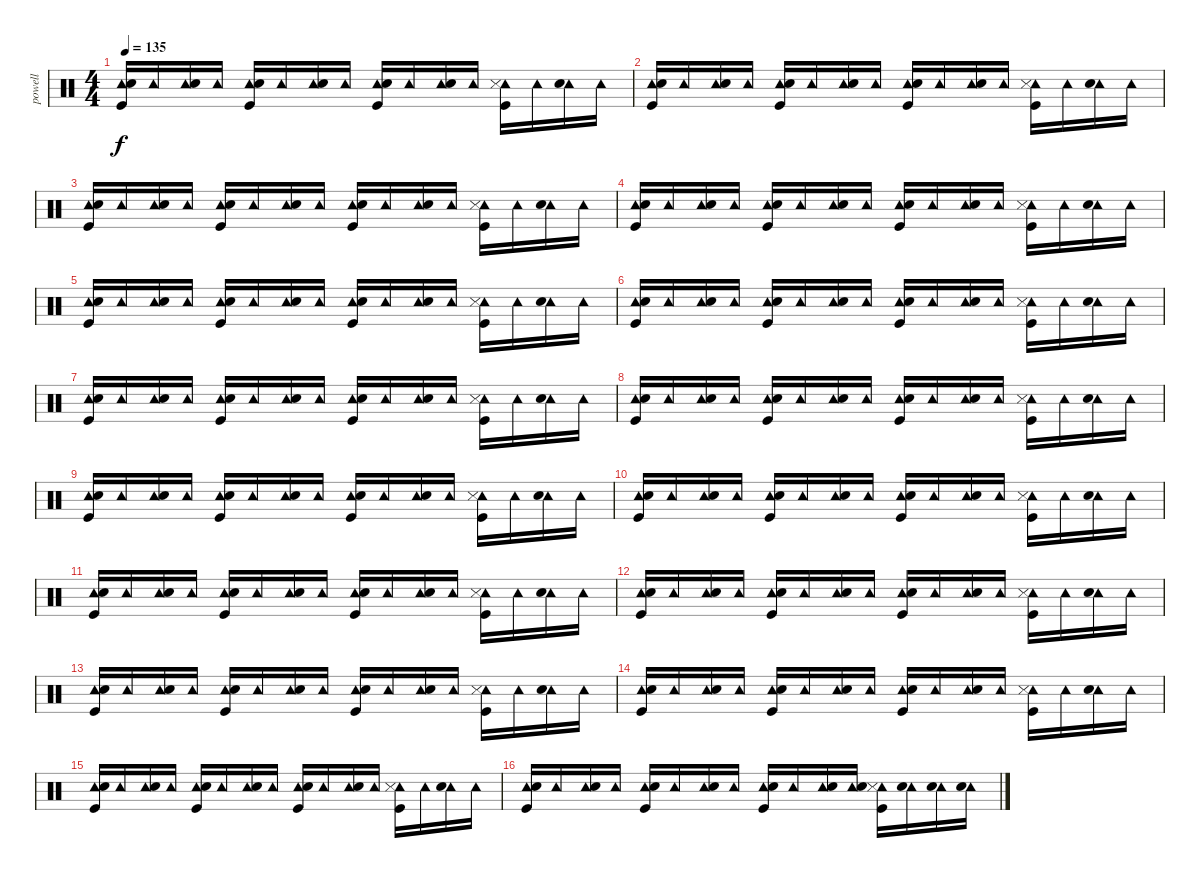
\track ("powell" "powell") {instrument percussion}
\staff {score}
\articulation defaults
\ts (4 4)
\tempo 135
\clef neutral
\ks c
("Tambourine (hit)" "Electric Snare (hit)" "Kick (hit)").16{dy f} "Tambourine (hit)".16 ("Tambourine (hit)" "Electric Snare (hit)").16 "Tambourine (hit)".16 ("Tambourine (hit)" "Electric Snare (hit)" "Kick (hit)").16 "Tambourine (hit)".16 ("Tambourine (hit)" "Electric Snare (hit)").16 "Tambourine (hit)".16 ("Tambourine (hit)" "Electric Snare (hit)" "Kick (hit)").16 "Tambourine (hit)".16 ("Tambourine (hit)" "Electric Snare (hit)").16 "Tambourine (hit)".16 ("Tambourine (hit)" "Snare (side stick) 3" "Kick (hit)").16 "Tambourine (hit)".16 ("Tambourine (hit)" "Electric Snare (hit)").16 "Tambourine (hit)".16 |
("Tambourine (hit)" "Electric Snare (hit)" "Kick (hit)").16 "Tambourine (hit)".16 ("Tambourine (hit)" "Electric Snare (hit)").16 "Tambourine (hit)".16 ("Tambourine (hit)" "Electric Snare (hit)" "Kick (hit)").16 "Tambourine (hit)".16 ("Tambourine (hit)" "Electric Snare (hit)").16 "Tambourine (hit)".16 ("Tambourine (hit)" "Electric Snare (hit)" "Kick (hit)").16 "Tambourine (hit)".16 ("Tambourine (hit)" "Electric Snare (hit)").16 "Tambourine (hit)".16 ("Tambourine (hit)" "Snare (side stick) 3" "Kick (hit)").16 "Tambourine (hit)".16 ("Tambourine (hit)" "Electric Snare (hit)").16 "Tambourine (hit)".16 |
("Tambourine (hit)" "Electric Snare (hit)" "Kick (hit)").16 "Tambourine (hit)".16 ("Tambourine (hit)" "Electric Snare (hit)").16 "Tambourine (hit)".16 ("Tambourine (hit)" "Electric Snare (hit)" "Kick (hit)").16 "Tambourine (hit)".16 ("Tambourine (hit)" "Electric Snare (hit)").16 "Tambourine (hit)".16 ("Tambourine (hit)" "Electric Snare (hit)" "Kick (hit)").16 "Tambourine (hit)".16 ("Tambourine (hit)" "Electric Snare (hit)").16 "Tambourine (hit)".16 ("Tambourine (hit)" "Snare (side stick) 3" "Kick (hit)").16 "Tambourine (hit)".16 ("Tambourine (hit)" "Electric Snare (hit)").16 "Tambourine (hit)".16 |
("Tambourine (hit)" "Electric Snare (hit)" "Kick (hit)").16 "Tambourine (hit)".16 ("Tambourine (hit)" "Electric Snare (hit)").16 "Tambourine (hit)".16 ("Tambourine (hit)" "Electric Snare (hit)" "Kick (hit)").16 "Tambourine (hit)".16 ("Tambourine (hit)" "Electric Snare (hit)").16 "Tambourine (hit)".16 ("Tambourine (hit)" "Electric Snare (hit)" "Kick (hit)").16 "Tambourine (hit)".16 ("Tambourine (hit)" "Electric Snare (hit)").16 "Tambourine (hit)".16 ("Tambourine (hit)" "Snare (side stick) 3" "Kick (hit)").16 "Tambourine (hit)".16 ("Tambourine (hit)" "Electric Snare (hit)").16 "Tambourine (hit)".16 |
("Tambourine (hit)" "Electric Snare (hit)" "Kick (hit)").16 "Tambourine (hit)".16 ("Tambourine (hit)" "Electric Snare (hit)").16 "Tambourine (hit)".16 ("Tambourine (hit)" "Electric Snare (hit)" "Kick (hit)").16 "Tambourine (hit)".16 ("Tambourine (hit)" "Electric Snare (hit)").16 "Tambourine (hit)".16 ("Tambourine (hit)" "Electric Snare (hit)" "Kick (hit)").16 "Tambourine (hit)".16 ("Tambourine (hit)" "Electric Snare (hit)").16 "Tambourine (hit)".16 ("Tambourine (hit)" "Snare (side stick) 3" "Kick (hit)").16 "Tambourine (hit)".16 ("Tambourine (hit)" "Electric Snare (hit)").16 "Tambourine (hit)".16 |
("Tambourine (hit)" "Electric Snare (hit)" "Kick (hit)").16 "Tambourine (hit)".16 ("Tambourine (hit)" "Electric Snare (hit)").16 "Tambourine (hit)".16 ("Tambourine (hit)" "Electric Snare (hit)" "Kick (hit)").16 "Tambourine (hit)".16 ("Tambourine (hit)" "Electric Snare (hit)").16 "Tambourine (hit)".16 ("Tambourine (hit)" "Electric Snare (hit)" "Kick (hit)").16 "Tambourine (hit)".16 ("Tambourine (hit)" "Electric Snare (hit)").16 "Tambourine (hit)".16 ("Tambourine (hit)" "Snare (side stick) 3" "Kick (hit)").16 "Tambourine (hit)".16 ("Tambourine (hit)" "Electric Snare (hit)").16 "Tambourine (hit)".16 |
("Tambourine (hit)" "Electric Snare (hit)" "Kick (hit)").16 "Tambourine (hit)".16 ("Tambourine (hit)" "Electric Snare (hit)").16 "Tambourine (hit)".16 ("Tambourine (hit)" "Electric Snare (hit)" "Kick (hit)").16 "Tambourine (hit)".16 ("Tambourine (hit)" "Electric Snare (hit)").16 "Tambourine (hit)".16 ("Tambourine (hit)" "Electric Snare (hit)" "Kick (hit)").16 "Tambourine (hit)".16 ("Tambourine (hit)" "Electric Snare (hit)").16 "Tambourine (hit)".16 ("Tambourine (hit)" "Snare (side stick) 3" "Kick (hit)").16 "Tambourine (hit)".16 ("Tambourine (hit)" "Electric Snare (hit)").16 "Tambourine (hit)".16 |
("Tambourine (hit)" "Electric Snare (hit)" "Kick (hit)").16 "Tambourine (hit)".16 ("Tambourine (hit)" "Electric Snare (hit)").16 "Tambourine (hit)".16 ("Tambourine (hit)" "Electric Snare (hit)" "Kick (hit)").16 "Tambourine (hit)".16 ("Tambourine (hit)" "Electric Snare (hit)").16 "Tambourine (hit)".16 ("Tambourine (hit)" "Electric Snare (hit)" "Kick (hit)").16 "Tambourine (hit)".16 ("Tambourine (hit)" "Electric Snare (hit)").16 "Tambourine (hit)".16 ("Tambourine (hit)" "Snare (side stick) 3" "Kick (hit)").16 "Tambourine (hit)".16 ("Tambourine (hit)" "Electric Snare (hit)").16 "Tambourine (hit)".16 |
("Tambourine (hit)" "Electric Snare (hit)" "Kick (hit)").16 "Tambourine (hit)".16 ("Tambourine (hit)" "Electric Snare (hit)").16 "Tambourine (hit)".16 ("Tambourine (hit)" "Electric Snare (hit)" "Kick (hit)").16 "Tambourine (hit)".16 ("Tambourine (hit)" "Electric Snare (hit)").16 "Tambourine (hit)".16 ("Tambourine (hit)" "Electric Snare (hit)" "Kick (hit)").16 "Tambourine (hit)".16 ("Tambourine (hit)" "Electric Snare (hit)").16 "Tambourine (hit)".16 ("Tambourine (hit)" "Snare (side stick) 3" "Kick (hit)").16 "Tambourine (hit)".16 ("Tambourine (hit)" "Electric Snare (hit)").16 "Tambourine (hit)".16 |
("Tambourine (hit)" "Electric Snare (hit)" "Kick (hit)").16 "Tambourine (hit)".16 ("Tambourine (hit)" "Electric Snare (hit)").16 "Tambourine (hit)".16 ("Tambourine (hit)" "Electric Snare (hit)" "Kick (hit)").16 "Tambourine (hit)".16 ("Tambourine (hit)" "Electric Snare (hit)").16 "Tambourine (hit)".16 ("Tambourine (hit)" "Electric Snare (hit)" "Kick (hit)").16 "Tambourine (hit)".16 ("Tambourine (hit)" "Electric Snare (hit)").16 "Tambourine (hit)".16 ("Tambourine (hit)" "Snare (side stick) 3" "Kick (hit)").16 "Tambourine (hit)".16 ("Tambourine (hit)" "Electric Snare (hit)").16 "Tambourine (hit)".16 |
("Tambourine (hit)" "Electric Snare (hit)" "Kick (hit)").16 "Tambourine (hit)".16 ("Tambourine (hit)" "Electric Snare (hit)").16 "Tambourine (hit)".16 ("Tambourine (hit)" "Electric Snare (hit)" "Kick (hit)").16 "Tambourine (hit)".16 ("Tambourine (hit)" "Electric Snare (hit)").16 "Tambourine (hit)".16 ("Tambourine (hit)" "Electric Snare (hit)" "Kick (hit)").16 "Tambourine (hit)".16 ("Tambourine (hit)" "Electric Snare (hit)").16 "Tambourine (hit)".16 ("Tambourine (hit)" "Snare (side stick) 3" "Kick (hit)").16 "Tambourine (hit)".16 ("Tambourine (hit)" "Electric Snare (hit)").16 "Tambourine (hit)".16 |
("Tambourine (hit)" "Electric Snare (hit)" "Kick (hit)").16 "Tambourine (hit)".16 ("Tambourine (hit)" "Electric Snare (hit)").16 "Tambourine (hit)".16 ("Tambourine (hit)" "Electric Snare (hit)" "Kick (hit)").16 "Tambourine (hit)".16 ("Tambourine (hit)" "Electric Snare (hit)").16 "Tambourine (hit)".16 ("Tambourine (hit)" "Electric Snare (hit)" "Kick (hit)").16 "Tambourine (hit)".16 ("Tambourine (hit)" "Electric Snare (hit)").16 "Tambourine (hit)".16 ("Tambourine (hit)" "Snare (side stick) 3" "Kick (hit)").16 "Tambourine (hit)".16 ("Tambourine (hit)" "Electric Snare (hit)").16 "Tambourine (hit)".16 |
("Tambourine (hit)" "Electric Snare (hit)" "Kick (hit)").16 "Tambourine (hit)".16 ("Tambourine (hit)" "Electric Snare (hit)").16 "Tambourine (hit)".16 ("Tambourine (hit)" "Electric Snare (hit)" "Kick (hit)").16 "Tambourine (hit)".16 ("Tambourine (hit)" "Electric Snare (hit)").16 "Tambourine (hit)".16 ("Tambourine (hit)" "Electric Snare (hit)" "Kick (hit)").16 "Tambourine (hit)".16 ("Tambourine (hit)" "Electric Snare (hit)").16 "Tambourine (hit)".16 ("Tambourine (hit)" "Snare (side stick) 3" "Kick (hit)").16 "Tambourine (hit)".16 ("Tambourine (hit)" "Electric Snare (hit)").16 "Tambourine (hit)".16 |
("Tambourine (hit)" "Electric Snare (hit)" "Kick (hit)").16 "Tambourine (hit)".16 ("Tambourine (hit)" "Electric Snare (hit)").16 "Tambourine (hit)".16 ("Tambourine (hit)" "Electric Snare (hit)" "Kick (hit)").16 "Tambourine (hit)".16 ("Tambourine (hit)" "Electric Snare (hit)").16 "Tambourine (hit)".16 ("Tambourine (hit)" "Electric Snare (hit)" "Kick (hit)").16 "Tambourine (hit)".16 ("Tambourine (hit)" "Electric Snare (hit)").16 "Tambourine (hit)".16 ("Tambourine (hit)" "Snare (side stick) 3" "Kick (hit)").16 "Tambourine (hit)".16 ("Tambourine (hit)" "Electric Snare (hit)").16 "Tambourine (hit)".16 |
("Tambourine (hit)" "Electric Snare (hit)" "Kick (hit)").16 "Tambourine (hit)".16 ("Tambourine (hit)" "Electric Snare (hit)").16 "Tambourine (hit)".16 ("Tambourine (hit)" "Electric Snare (hit)" "Kick (hit)").16 "Tambourine (hit)".16 ("Tambourine (hit)" "Electric Snare (hit)").16 "Tambourine (hit)".16 ("Tambourine (hit)" "Electric Snare (hit)" "Kick (hit)").16 "Tambourine (hit)".16 ("Tambourine (hit)" "Electric Snare (hit)").16 "Tambourine (hit)".16 ("Tambourine (hit)" "Snare (side stick) 3" "Kick (hit)").16 "Tambourine (hit)".16 ("Tambourine (hit)" "Electric Snare (hit)").16 "Tambourine (hit)".16 |
("Tambourine (hit)" "Electric Snare (hit)" "Kick (hit)").16 "Tambourine (hit)".16 ("Tambourine (hit)" "Electric Snare (hit)").16 "Tambourine (hit)".16 ("Tambourine (hit)" "Electric Snare (hit)" "Kick (hit)").16 "Tambourine (hit)".16 ("Tambourine (hit)" "Electric Snare (hit)").16 "Tambourine (hit)".16 ("Tambourine (hit)" "Electric Snare (hit)" "Kick (hit)").16 "Tambourine (hit)".16 ("Tambourine (hit)" "Electric Snare (hit)").16 ("Tambourine (hit)" "Electric Snare (hit)").16 ("Tambourine (hit)" "Snare (side stick) 3" "Kick (hit)").16 ("Tambourine (hit)" "Electric Snare (hit)").16 ("Tambourine (hit)" "Electric Snare (hit)").16 ("Tambourine (hit)" "Electric Snare (hit)").16
